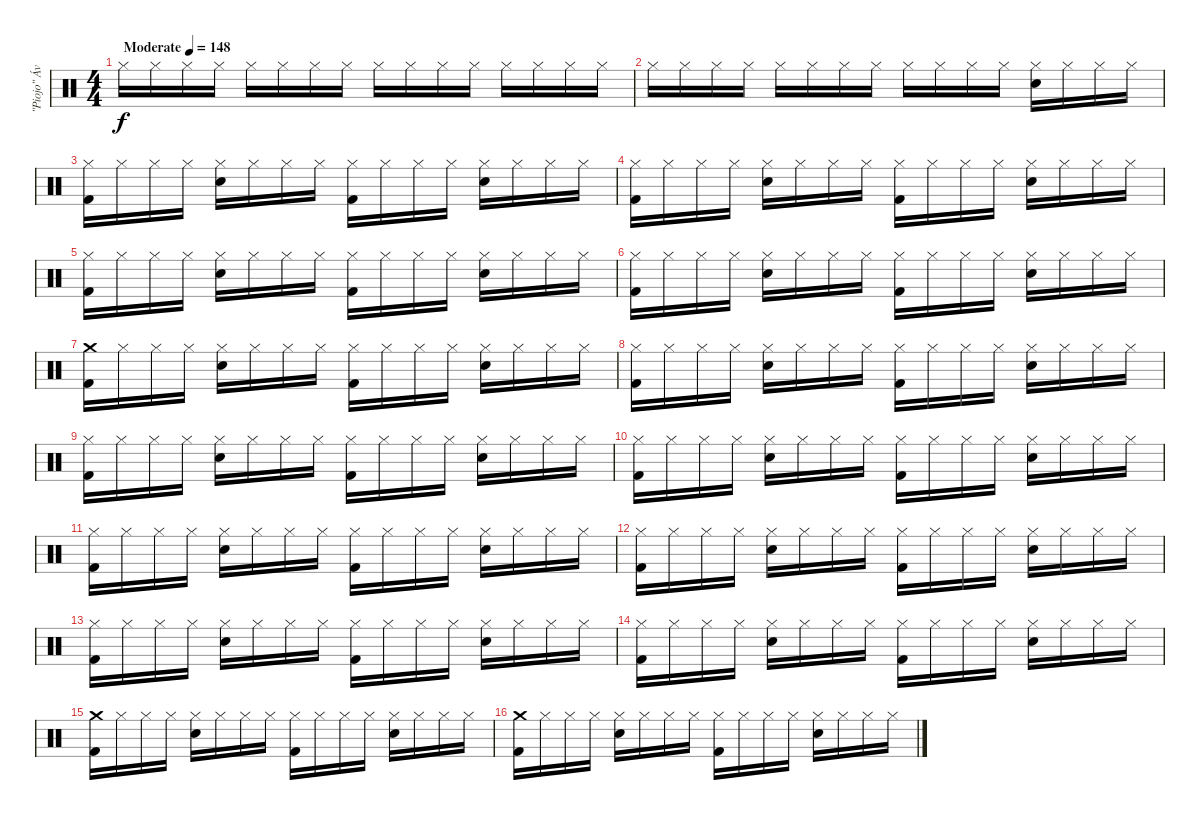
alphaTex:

\track ("\"Piojo\" Ávalos" "\"Piojo\" Áv") {instrument percussion}
\staff {score}
\articulation defaults
\ts (4 4)
\tempo (148 "Moderate")
\clef neutral
\ks c "Hi-Hat (closed)".16{dy f volume 0} "Hi-Hat (closed)".16 "Hi-Hat (closed)".16 "Hi-Hat (closed)".16 "Hi-Hat (closed)".16 "Hi-Hat (closed)".16 "Hi-Hat (closed)".16 "Hi-Hat (closed)".16 "Hi-Hat (closed)".16 "Hi-Hat (closed)".16 "Hi-Hat (closed)".16 "Hi-Hat (closed)".16 "Hi-Hat (closed)".16 "Hi-Hat (closed)".16 "Hi-Hat (closed)".16 "Hi-Hat (closed)".16
|
"Hi-Hat (closed)".16 "Hi-Hat (closed)".16 "Hi-Hat (closed)".16 "Hi-Hat (closed)".16 "Hi-Hat (closed)".16 "Hi-Hat (closed)".16 "Hi-Hat (closed)".16 "Hi-Hat (closed)".16 "Hi-Hat (closed)".16 "Hi-Hat (closed)".16 "Hi-Hat (closed)".16 "Hi-Hat (closed)".16 ("Hi-Hat (closed)" "Electric Snare (hit)").16{volume 13} "Hi-Hat (closed)".16 "Hi-Hat (closed)".16 "Hi-Hat (closed)".16 |
("Hi-Hat (closed)" "Kick (hit) 2").16 "Hi-Hat (closed)".16 "Hi-Hat (closed)".16 "Hi-Hat (closed)".16 ("Hi-Hat (closed)" "Electric Snare (hit)").16 "Hi-Hat (closed)".16 "Hi-Hat (closed)".16 "Hi-Hat (closed)".16 ("Hi-Hat (closed)" "Kick (hit) 2").16 "Hi-Hat (closed)".16 "Hi-Hat (closed)".16 "Hi-Hat (closed)".16 ("Hi-Hat (closed)" "Electric Snare (hit)").16 "Hi-Hat (closed)".16 "Hi-Hat (closed)".16 "Hi-Hat (closed)".16 |
("Hi-Hat (closed)" "Kick (hit) 2").16 "Hi-Hat (closed)".16 "Hi-Hat (closed)".16 "Hi-Hat (closed)".16 ("Hi-Hat (closed)" "Electric Snare (hit)").16 "Hi-Hat (closed)".16 "Hi-Hat (closed)".16 "Hi-Hat (closed)".16 ("Hi-Hat (closed)" "Kick (hit) 2").16 "Hi-Hat (closed)".16 "Hi-Hat (closed)".16 "Hi-Hat (closed)".16 ("Hi-Hat (closed)" "Electric Snare (hit)").16 "Hi-Hat (closed)".16 "Hi-Hat (closed)".16 "Hi-Hat (closed)".16 |
("Hi-Hat (closed)" "Kick (hit) 2").16 "Hi-Hat (closed)".16 "Hi-Hat (closed)".16 "Hi-Hat (closed)".16 ("Hi-Hat (closed)" "Electric Snare (hit)").16 "Hi-Hat (closed)".16 "Hi-Hat (closed)".16 "Hi-Hat (closed)".16 ("Hi-Hat (closed)" "Kick (hit) 2").16 "Hi-Hat (closed)".16 "Hi-Hat (closed)".16 "Hi-Hat (closed)".16 ("Hi-Hat (closed)" "Electric Snare (hit)").16 "Hi-Hat (closed)".16 "Hi-Hat (closed)".16 "Hi-Hat (closed)".16 |
("Hi-Hat (closed)" "Kick (hit) 2").16 "Hi-Hat (closed)".16 "Hi-Hat (closed)".16 "Hi-Hat (closed)".16 ("Hi-Hat (closed)" "Electric Snare (hit)").16 "Hi-Hat (closed)".16 "Hi-Hat (closed)".16 "Hi-Hat (closed)".16 ("Hi-Hat (closed)" "Kick (hit) 2").16 "Hi-Hat (closed)".16 "Hi-Hat (closed)".16 "Hi-Hat (closed)".16 ("Hi-Hat (closed)" "Electric Snare (hit)").16 "Hi-Hat (closed)".16 "Hi-Hat (closed)".16 "Hi-Hat (closed)".16 |
("Crash medium (hit)" "Kick (hit) 2").16 "Hi-Hat (closed)".16 "Hi-Hat (closed)".16 "Hi-Hat (closed)".16 ("Hi-Hat (closed)" "Electric Snare (hit)").16 "Hi-Hat (closed)".16 "Hi-Hat (closed)".16 "Hi-Hat (closed)".16 ("Hi-Hat (closed)" "Kick (hit) 2").16 "Hi-Hat (closed)".16 "Hi-Hat (closed)".16 "Hi-Hat (closed)".16 ("Hi-Hat (closed)" "Electric Snare (hit)").16 "Hi-Hat (closed)".16 "Hi-Hat (closed)".16 "Hi-Hat (closed)".16 |
("Hi-Hat (closed)" "Kick (hit) 2").16 "Hi-Hat (closed)".16 "Hi-Hat (closed)".16 "Hi-Hat (closed)".16 ("Hi-Hat (closed)" "Electric Snare (hit)").16 "Hi-Hat (closed)".16 "Hi-Hat (closed)".16 "Hi-Hat (closed)".16 ("Hi-Hat (closed)" "Kick (hit) 2").16 "Hi-Hat (closed)".16 "Hi-Hat (closed)".16 "Hi-Hat (closed)".16 ("Hi-Hat (closed)" "Electric Snare (hit)").16 "Hi-Hat (closed)".16 "Hi-Hat (closed)".16 "Hi-Hat (closed)".16 |
("Hi-Hat (closed)" "Kick (hit) 2").16 "Hi-Hat (closed)".16 "Hi-Hat (closed)".16 "Hi-Hat (closed)".16 ("Hi-Hat (closed)" "Electric Snare (hit)").16 "Hi-Hat (closed)".16 "Hi-Hat (closed)".16 "Hi-Hat (closed)".16 ("Hi-Hat (closed)" "Kick (hit) 2").16 "Hi-Hat (closed)".16 "Hi-Hat (closed)".16 "Hi-Hat (closed)".16 ("Hi-Hat (closed)" "Electric Snare (hit)").16 "Hi-Hat (closed)".16 "Hi-Hat (closed)".16 "Hi-Hat (closed)".16 |
("Hi-Hat (closed)" "Kick (hit) 2").16 "Hi-Hat (closed)".16 "Hi-Hat (closed)".16 "Hi-Hat (closed)".16 ("Hi-Hat (closed)" "Electric Snare (hit)").16 "Hi-Hat (closed)".16 "Hi-Hat (closed)".16 "Hi-Hat (closed)".16 ("Hi-Hat (closed)" "Kick (hit) 2").16 "Hi-Hat (closed)".16 "Hi-Hat (closed)".16 "Hi-Hat (closed)".16 ("Hi-Hat (closed)" "Electric Snare (hit)").16 "Hi-Hat (closed)".16 "Hi-Hat (closed)".16 "Hi-Hat (closed)".16 |
("Hi-Hat (closed)" "Kick (hit) 2").16 "Hi-Hat (closed)".16 "Hi-Hat (closed)".16 "Hi-Hat (closed)".16 ("Hi-Hat (closed)" "Electric Snare (hit)").16 "Hi-Hat (closed)".16 "Hi-Hat (closed)".16 "Hi-Hat (closed)".16 ("Hi-Hat (closed)" "Kick (hit) 2").16 "Hi-Hat (closed)".16 "Hi-Hat (closed)".16 "Hi-Hat (closed)".16 ("Hi-Hat (closed)" "Electric Snare (hit)").16 "Hi-Hat (closed)".16 "Hi-Hat (closed)".16 "Hi-Hat (closed)".16 |
("Hi-Hat (closed)" "Kick (hit) 2").16 "Hi-Hat (closed)".16 "Hi-Hat (closed)".16 "Hi-Hat (closed)".16 ("Hi-Hat (closed)" "Electric Snare (hit)").16 "Hi-Hat (closed)".16 "Hi-Hat (closed)".16 "Hi-Hat (closed)".16 ("Hi-Hat (closed)" "Kick (hit) 2").16 "Hi-Hat (closed)".16 "Hi-Hat (closed)".16 "Hi-Hat (closed)".16 ("Hi-Hat (closed)" "Electric Snare (hit)").16 "Hi-Hat (closed)".16 "Hi-Hat (closed)".16 "Hi-Hat (closed)".16 |
("Hi-Hat (closed)" "Kick (hit) 2").16 "Hi-Hat (closed)".16 "Hi-Hat (closed)".16 "Hi-Hat (closed)".16 ("Hi-Hat (closed)" "Electric Snare (hit)").16 "Hi-Hat (closed)".16 "Hi-Hat (closed)".16 "Hi-Hat (closed)".16 ("Hi-Hat (closed)" "Kick (hit) 2").16 "Hi-Hat (closed)".16 "Hi-Hat (closed)".16 "Hi-Hat (closed)".16 ("Hi-Hat (closed)" "Electric Snare (hit)").16 "Hi-Hat (closed)".16 "Hi-Hat (closed)".16 "Hi-Hat (closed)".16 |
("Hi-Hat (closed)" "Kick (hit) 2").16 "Hi-Hat (closed)".16 "Hi-Hat (closed)".16 "Hi-Hat (closed)".16 ("Hi-Hat (closed)" "Electric Snare (hit)").16 "Hi-Hat (closed)".16 "Hi-Hat (closed)".16 "Hi-Hat (closed)".16 ("Hi-Hat (closed)" "Kick (hit) 2").16 "Hi-Hat (closed)".16 "Hi-Hat (closed)".16 "Hi-Hat (closed)".16 ("Hi-Hat (closed)" "Electric Snare (hit)").16 "Hi-Hat (closed)".16 "Hi-Hat (closed)".16 "Hi-Hat (closed)".16 |
("Crash medium (hit)" "Kick (hit) 2").16 "Hi-Hat (closed)".16 "Hi-Hat (closed)".16 "Hi-Hat (closed)".16 ("Hi-Hat (closed)" "Electric Snare (hit)").16 "Hi-Hat (closed)".16 "Hi-Hat (closed)".16 "Hi-Hat (closed)".16 ("Hi-Hat (closed)" "Kick (hit) 2").16 "Hi-Hat (closed)".16 "Hi-Hat (closed)".16 "Hi-Hat (closed)".16 ("Hi-Hat (closed)" "Electric Snare (hit)").16 "Hi-Hat (closed)".16 "Hi-Hat (closed)".16 "Hi-Hat (closed)".16 |
("Crash medium (hit)" "Kick (hit) 2").16 "Hi-Hat (closed)".16 "Hi-Hat (closed)".16 "Hi-Hat (closed)".16 ("Hi-Hat (closed)" "Electric Snare (hit)").16 "Hi-Hat (closed)".16 "Hi-Hat (closed)".16 "Hi-Hat (closed)".16 ("Hi-Hat (closed)" "Kick (hit) 2").16 "Hi-Hat (closed)".16 "Hi-Hat (closed)".16 "Hi-Hat (closed)".16 ("Hi-Hat (closed)" "Electric Snare (hit)").16 "Hi-Hat (closed)".16 "Hi-Hat (closed)".16 "Hi-Hat (closed)".16
